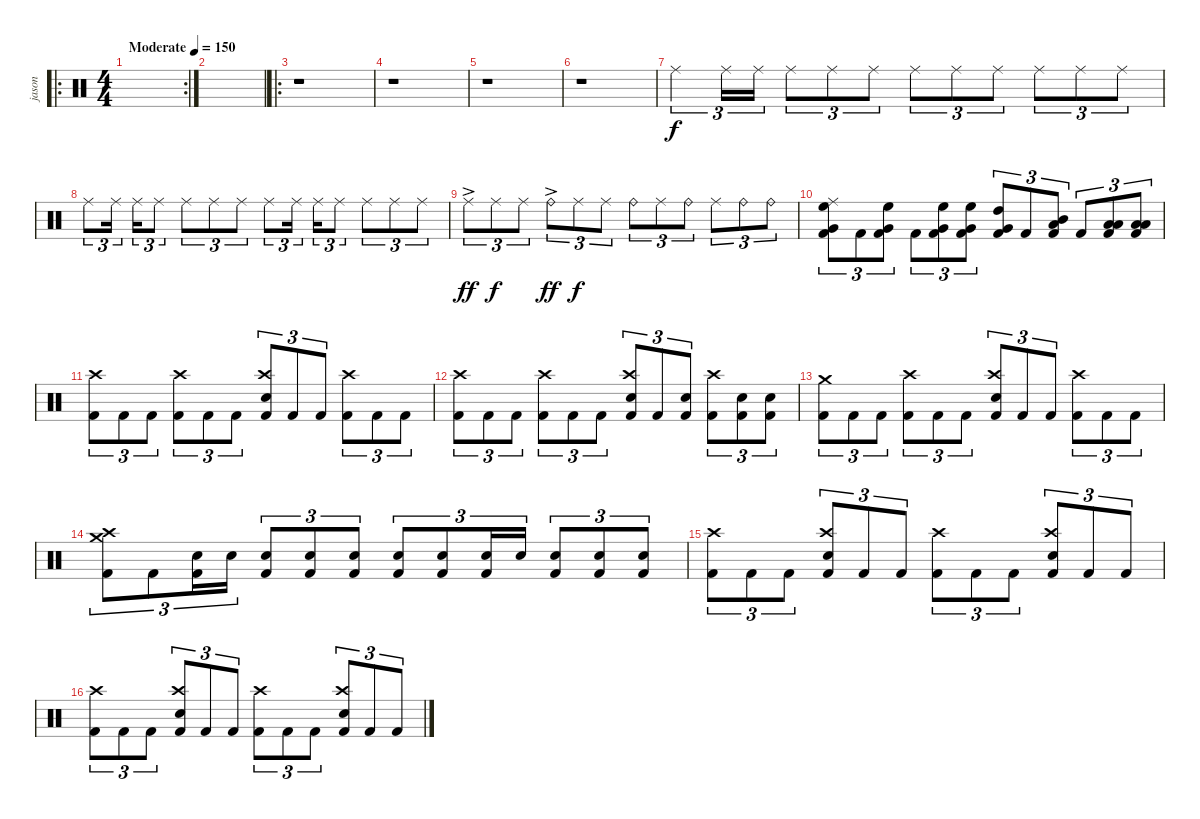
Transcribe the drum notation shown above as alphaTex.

\track ("jason" "jason") {instrument percussion}
\staff {score}
\articulation defaults
\ro
\rc 2
\ts (4 4)
\tempo (150 "Moderate")
\clef neutral
\ks c
|
|
\ro
r.1 |
r.1 |
r.1 |
r.1 |
"Ride (middle)".4{tu (3 2)} "Ride (middle)".16{tu (3 2)} "Ride (middle)".16{tu (3 2)} "Ride (middle)".8{tu (3 2)} "Ride (middle)".8{tu (3 2)} "Ride (middle)".8{tu (3 2)} "Ride (middle)".8{tu (3 2)} "Ride (middle)".8{tu (3 2)} "Ride (middle)".8{tu (3 2)} "Ride (middle)".8{tu (3 2)} "Ride (middle)".8{tu (3 2)} "Ride (middle)".8{tu (3 2)} |
"Ride (middle)".8{tu (3 2)} "Ride (middle)".16{tu (3 2) beam splitsecondary} "Ride (middle)".16{tu (3 2)} "Ride (middle)".8{tu (3 2)} "Ride (middle)".8{tu (3 2)} "Ride (middle)".8{tu (3 2)} "Ride (middle)".8{tu (3 2)} "Ride (middle)".8{tu (3 2)} "Ride (middle)".16{tu (3 2) beam splitsecondary} "Ride (middle)".16{tu (3 2)} "Ride (middle)".8{tu (3 2)} "Ride (middle)".8{tu (3 2)} "Ride (middle)".8{tu (3 2)} "Ride (middle)".8{tu (3 2)} |
"Ride (middle)"{ac}.8{tu (3 2) dy ff} "Ride (middle)".8{tu (3 2) dy f} "Ride (middle)".8{tu (3 2)} "Ride (bell)"{ac}.8{tu (3 2) dy ff} "Ride (middle)".8{tu (3 2) dy f} "Ride (middle)".8{tu (3 2)} "Ride (bell)".8{tu (3 2)} "Ride (middle)".8{tu (3 2)} "Ride (bell)".8{tu (3 2)} "Ride (middle)".8{tu (3 2)} "Ride (bell)".8{tu (3 2)} "Ride (bell)".8{tu (3 2)} |
("Ride (middle)" "High Floor Tom (hit)" "Very Low Tom (hit)" "Kick (hit) 2").8{tu (3 2)} "Kick (hit) 2".8{tu (3 2)} ("High Floor Tom (hit)" "Very Low Tom (hit)" "Kick (hit) 2").8{tu (3 2)} "Kick (hit) 2".8{tu (3 2)} ("High Floor Tom (hit)" "Very Low Tom (hit)" "Kick (hit) 2").8{tu (3 2)} ("High Floor Tom (hit)" "Very Low Tom (hit)" "Kick (hit) 2").8{tu (3 2)} ("High Tom (hit)" "Very Low Tom (hit)" "Kick (hit) 2").8{tu (3 2)} "Kick (hit) 2".8{tu (3 2)} ("Mid Tom (hit)" "Low Floor Tom (hit)" "Kick (hit) 2").8{tu (3 2)} "Kick (hit) 2".8{tu (3 2)} ("Low Tom (hit)" "Low Floor Tom (hit)" "Kick (hit) 2").8{tu (3 2)} ("Low Tom (hit)" "Low Floor Tom (hit)" "Kick (hit) 2").8{tu (3 2)} |
("Crash high (hit)" "Kick (hit) 2").8{tu (3 2)} "Kick (hit) 2".8{tu (3 2)} "Kick (hit) 2".8{tu (3 2)} ("Crash high (hit)" "Kick (hit) 2").8{tu (3 2)} "Kick (hit) 2".8{tu (3 2)} "Kick (hit) 2".8{tu (3 2)} ("Crash high (hit)" "Snare (hit) 2" "Kick (hit) 2").8{tu (3 2)} "Kick (hit) 2".8{tu (3 2)} "Kick (hit) 2".8{tu (3 2)} ("Crash high (hit)" "Kick (hit) 2").8{tu (3 2)} "Kick (hit) 2".8{tu (3 2)} "Kick (hit) 2".8{tu (3 2)} |
("Crash high (hit)" "Kick (hit) 2").8{tu (3 2)} "Kick (hit) 2".8{tu (3 2)} "Kick (hit) 2".8{tu (3 2)} ("Crash high (hit)" "Kick (hit) 2").8{tu (3 2)} "Kick (hit) 2".8{tu (3 2)} "Kick (hit) 2".8{tu (3 2)} ("Crash high (hit)" "Snare (hit) 2" "Kick (hit) 2").8{tu (3 2)} "Kick (hit) 2".8{tu (3 2)} ("Snare (hit) 2" "Kick (hit) 2").8{tu (3 2)} ("Crash high (hit)" "Kick (hit) 2").8{tu (3 2)} ("Snare (hit) 2" "Kick (hit) 2").8{tu (3 2)} ("Snare (hit) 2" "Kick (hit) 2").8{tu (3 2)} |
("Crash medium (hit)" "Kick (hit) 2").8{tu (3 2)} "Kick (hit) 2".8{tu (3 2)} "Kick (hit) 2".8{tu (3 2)} ("Crash high (hit)" "Kick (hit) 2").8{tu (3 2)} "Kick (hit) 2".8{tu (3 2)} "Kick (hit) 2".8{tu (3 2)} ("Crash high (hit)" "Snare (hit) 2" "Kick (hit) 2").8{tu (3 2)} "Kick (hit) 2".8{tu (3 2)} "Kick (hit) 2".8{tu (3 2)} ("Crash high (hit)" "Kick (hit) 2").8{tu (3 2)} "Kick (hit) 2".8{tu (3 2)} "Kick (hit) 2".8{tu (3 2)} |
("Crash high (hit)" "Crash medium (hit)" "Kick (hit) 2").8{tu (3 2)} "Kick (hit) 2".8{tu (3 2)} ("Snare (hit) 2" "Kick (hit) 2").16{tu (3 2)} "Snare (hit) 2".16{tu (3 2)} ("Snare (hit) 2" "Kick (hit) 2").8{tu (3 2)} ("Snare (hit) 2" "Kick (hit) 2").8{tu (3 2)} ("Snare (hit) 2" "Kick (hit) 2").8{tu (3 2)} ("Snare (hit) 2" "Kick (hit) 2").8{tu (3 2)} ("Snare (hit) 2" "Kick (hit) 2").8{tu (3 2)} ("Snare (hit) 2" "Kick (hit) 2").16{tu (3 2)} "Snare (hit) 2".16{tu (3 2)} ("Snare (hit) 2" "Kick (hit) 2").8{tu (3 2)} ("Snare (hit) 2" "Kick (hit) 2").8{tu (3 2)} ("Snare (hit) 2" "Kick (hit) 2").8{tu (3 2)} |
("Crash high (hit)" "Kick (hit) 2").8{tu (3 2)} "Kick (hit) 2".8{tu (3 2)} "Kick (hit) 2".8{tu (3 2)} ("Crash high (hit)" "Snare (hit) 2" "Kick (hit) 2").8{tu (3 2)} "Kick (hit) 2".8{tu (3 2)} "Kick (hit) 2".8{tu (3 2)} ("Crash high (hit)" "Kick (hit) 2").8{tu (3 2)} "Kick (hit) 2".8{tu (3 2)} "Kick (hit) 2".8{tu (3 2)} ("Crash high (hit)" "Snare (hit) 2" "Kick (hit) 2").8{tu (3 2)} "Kick (hit) 2".8{tu (3 2)} "Kick (hit) 2".8{tu (3 2)} |
("Crash high (hit)" "Kick (hit) 2").8{tu (3 2)} "Kick (hit) 2".8{tu (3 2)} "Kick (hit) 2".8{tu (3 2)} ("Crash high (hit)" "Snare (hit) 2" "Kick (hit) 2").8{tu (3 2)} "Kick (hit) 2".8{tu (3 2)} "Kick (hit) 2".8{tu (3 2)} ("Crash high (hit)" "Kick (hit) 2").8{tu (3 2)} "Kick (hit) 2".8{tu (3 2)} "Kick (hit) 2".8{tu (3 2)} ("Crash high (hit)" "Snare (hit) 2" "Kick (hit) 2").8{tu (3 2)} "Kick (hit) 2".8{tu (3 2)} "Kick (hit) 2".8{tu (3 2)}
